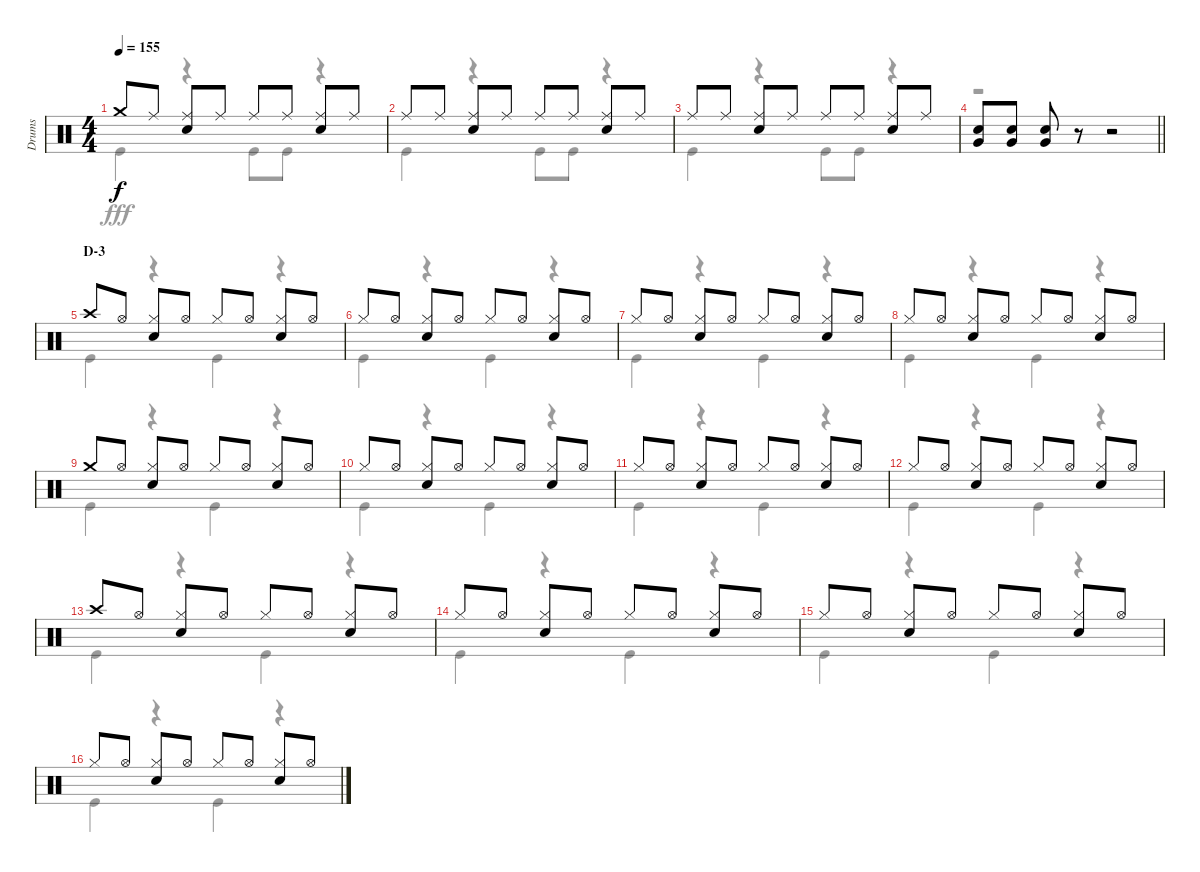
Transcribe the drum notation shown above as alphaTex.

\track ("Drums" "Drums") {instrument percussion}
\staff {score}
\articulation defaults
\voice
\ts (4 4)
\tempo 155
\clef neutral
\ks c "Crash medium (hit)".8{dy f} "Ride (middle)".8
("Ride (middle)" "Snare (hit) 2").8 "Ride (middle)".8 "Ride (middle)".8 "Ride (middle)".8 ("Ride (middle)" "Snare (hit) 2").8 "Ride (middle)".8 |
"Ride (middle)".8 "Ride (middle)".8 ("Ride (middle)" "Snare (hit) 2").8 "Ride (middle)".8 "Ride (middle)".8 "Ride (middle)".8 ("Ride (middle)" "Snare (hit) 2").8 "Ride (middle)".8 |
"Ride (middle)".8 "Ride (middle)".8 ("Ride (middle)" "Snare (hit) 2").8 "Ride (middle)".8 "Ride (middle)".8 "Ride (middle)".8 ("Ride (middle)" "Snare (hit) 2").8 "Ride (middle)".8 |
\barLineRight lightlight
("Snare (hit) 2" "Very Low Tom (hit)").8 ("Snare (hit) 2" "Very Low Tom (hit)").8 ("Snare (hit) 2" "Very Low Tom (hit)").8 r.8 r.2 |
\section ("" "D-3")
"Crash high (hit)".8 "Hi-Hat (open)".8 ("Hi-Hat (closed)" "Snare (hit) 2").8 "Hi-Hat (open)".8 "Hi-Hat (closed)".8 "Hi-Hat (open)".8 ("Hi-Hat (closed)" "Snare (hit) 2").8 "Hi-Hat (open)".8 |
"Hi-Hat (closed)".8 "Hi-Hat (open)".8 ("Hi-Hat (closed)" "Snare (hit) 2").8 "Hi-Hat (open)".8 "Hi-Hat (closed)".8 "Hi-Hat (open)".8 ("Hi-Hat (closed)" "Snare (hit) 2").8 "Hi-Hat (open)".8 |
"Hi-Hat (closed)".8 "Hi-Hat (open)".8 ("Hi-Hat (closed)" "Snare (hit) 2").8 "Hi-Hat (open)".8 "Hi-Hat (closed)".8 "Hi-Hat (open)".8 ("Hi-Hat (closed)" "Snare (hit) 2").8 "Hi-Hat (open)".8 |
"Hi-Hat (closed)".8 "Hi-Hat (open)".8 ("Hi-Hat (closed)" "Snare (hit) 2").8 "Hi-Hat (open)".8 "Hi-Hat (closed)".8 "Hi-Hat (open)".8 ("Hi-Hat (closed)" "Snare (hit) 2").8 "Hi-Hat (open)".8 |
"Crash medium (hit)".8 "Hi-Hat (open)".8 ("Hi-Hat (closed)" "Snare (hit) 2").8 "Hi-Hat (open)".8 "Hi-Hat (closed)".8 "Hi-Hat (open)".8 ("Hi-Hat (closed)" "Snare (hit) 2").8 "Hi-Hat (open)".8 |
"Hi-Hat (closed)".8 "Hi-Hat (open)".8 ("Hi-Hat (closed)" "Snare (hit) 2").8 "Hi-Hat (open)".8 "Hi-Hat (closed)".8 "Hi-Hat (open)".8 ("Hi-Hat (closed)" "Snare (hit) 2").8 "Hi-Hat (open)".8 |
"Hi-Hat (closed)".8 "Hi-Hat (open)".8 ("Hi-Hat (closed)" "Snare (hit) 2").8 "Hi-Hat (open)".8 "Hi-Hat (closed)".8 "Hi-Hat (open)".8 ("Hi-Hat (closed)" "Snare (hit) 2").8 "Hi-Hat (open)".8 |
"Hi-Hat (closed)".8 "Hi-Hat (open)".8 ("Hi-Hat (closed)" "Snare (hit) 2").8 "Hi-Hat (open)".8 "Hi-Hat (closed)".8 "Hi-Hat (open)".8 ("Hi-Hat (closed)" "Snare (hit) 2").8 "Hi-Hat (open)".8 |
"Crash high (hit)".8 "Hi-Hat (open)".8 ("Hi-Hat (closed)" "Snare (hit) 2").8 "Hi-Hat (open)".8 "Hi-Hat (closed)".8 "Hi-Hat (open)".8 ("Hi-Hat (closed)" "Snare (hit) 2").8 "Hi-Hat (open)".8 |
"Hi-Hat (closed)".8 "Hi-Hat (open)".8 ("Hi-Hat (closed)" "Snare (hit) 2").8 "Hi-Hat (open)".8 "Hi-Hat (closed)".8 "Hi-Hat (open)".8 ("Hi-Hat (closed)" "Snare (hit) 2").8 "Hi-Hat (open)".8 |
"Hi-Hat (closed)".8 "Hi-Hat (open)".8 ("Hi-Hat (closed)" "Snare (hit) 2").8 "Hi-Hat (open)".8 "Hi-Hat (closed)".8 "Hi-Hat (open)".8 ("Hi-Hat (closed)" "Snare (hit) 2").8 "Hi-Hat (open)".8 |
"Hi-Hat (closed)".8 "Hi-Hat (open)".8 ("Hi-Hat (closed)" "Snare (hit) 2").8 "Hi-Hat (open)".8 "Hi-Hat (closed)".8 "Hi-Hat (open)".8 ("Hi-Hat (closed)" "Snare (hit) 2").8 "Hi-Hat (open)".8
\voice
\clef neutral
\ottava regular
\simile none
\ks c "Kick (hit)".4{dy fff}
r.4 "Kick (hit)".8 "Kick (hit)".8 r.4 |
"Kick (hit)".4 r.4 "Kick (hit)".8 "Kick (hit)".8 r.4 |
"Kick (hit)".4 r.4 "Kick (hit)".8 "Kick (hit)".8 r.4 |
\barLineRight lightlight
r.1 |
"Kick (hit)".4 r.4 "Kick (hit)".4 r.4 |
"Kick (hit)".4 r.4 "Kick (hit)".4 r.4 |
"Kick (hit)".4 r.4 "Kick (hit)".4 r.4 |
"Kick (hit)".4 r.4 "Kick (hit)".4 r.4 |
"Kick (hit)".4 r.4 "Kick (hit)".4 r.4 |
"Kick (hit)".4 r.4 "Kick (hit)".4 r.4 |
"Kick (hit)".4 r.4 "Kick (hit)".4 r.4 |
"Kick (hit)".4 r.4 "Kick (hit)".4 r.4 |
"Kick (hit)".4 r.4 "Kick (hit)".4 r.4 |
"Kick (hit)".4 r.4 "Kick (hit)".4 r.4 |
"Kick (hit)".4 r.4 "Kick (hit)".4 r.4 |
"Kick (hit)".4 r.4 "Kick (hit)".4 r.4
